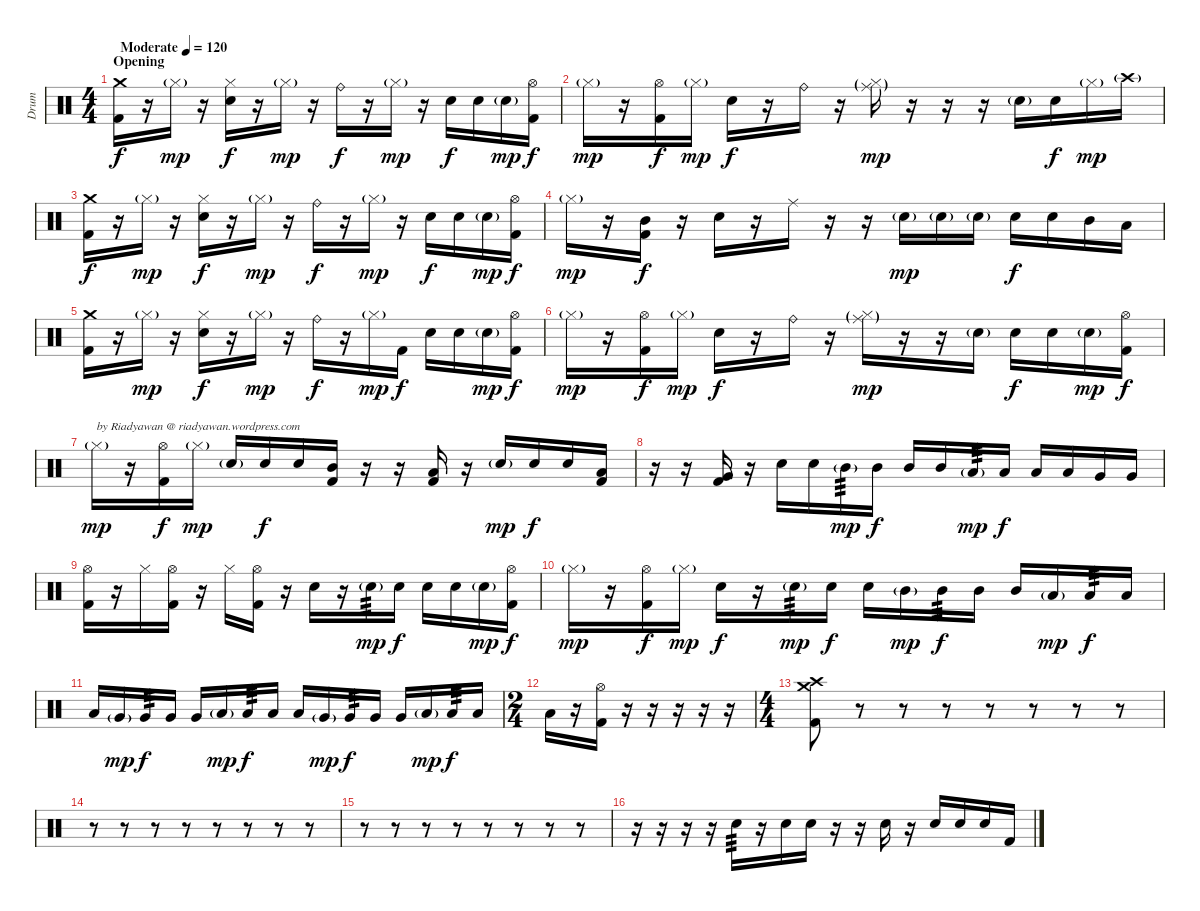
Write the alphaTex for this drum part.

\track ("Drum" "Drum") {instrument percussion}
\staff {score}
\articulation defaults
\ts (4 4)
\section ("" "Opening")
\tempo (120 "Moderate")
\clef neutral
\ks c
("Crash medium (hit)" "Kick (hit) 2").16{dy f} r.16 "Hi-Hat (closed)"{g}.16{dy mp} r.16 ("Hi-Hat (closed)" "Snare (hit) 2").16{dy f} r.16 "Hi-Hat (closed)"{g}.16{dy mp} r.16 "Ride (bell)".16{dy f} r.16 "Hi-Hat (closed)"{g}.16{dy mp} r.16 "Snare (hit) 2".16{dy f} "Snare (hit) 2".16 "Snare (hit) 2"{g}.16{dy mp} ("Hi-Hat (open)" "Kick (hit) 2").16{dy f} |
"Hi-Hat (closed)"{g}.16{dy mp} r.16 ("Hi-Hat (open)" "Kick (hit) 2").16{dy f} "Hi-Hat (closed)"{g}.16{dy mp} "Snare (hit) 2".16{dy f} r.16 "Ride (bell)".16 r.16 ("Hi-Hat (closed)"{g} "Ride (middle)"{g}).16{dy mp} r.16 r.16 r.16 "Snare (hit) 2"{g}.16 "Snare (hit) 2".16{dy f} "Hi-Hat (closed)"{g}.16{dy mp} "Crash high (hit)"{g}.16 |
("Crash medium (hit)" "Kick (hit) 2").16{dy f} r.16 "Hi-Hat (closed)"{g}.16{dy mp} r.16 ("Hi-Hat (closed)" "Snare (hit) 2").16{dy f} r.16 "Hi-Hat (closed)"{g}.16{dy mp} r.16 "Ride (bell)".16{dy f} r.16 "Hi-Hat (closed)"{g}.16{dy mp} r.16 "Snare (hit) 2".16{dy f} "Snare (hit) 2".16 "Snare (hit) 2"{g}.16{dy mp} ("Hi-Hat (open)" "Kick (hit) 2").16{dy f} |
"Hi-Hat (closed)"{g}.16{dy mp} r.16 ("Mid Tom (hit)" "Kick (hit) 2").16{dy f} r.16 "Snare (hit) 2".16 r.16 "Ride (middle)".16 r.16 r.16 "Snare (hit) 2"{g}.16{dy mp} "Snare (hit) 2"{g}.16 "Snare (hit) 2"{g}.16 "Snare (hit) 2".16{dy f} "Snare (hit) 2".16 "Mid Tom (hit)".16 "Low Tom (hit)".16 |
("Crash medium (hit)" "Kick (hit) 2").16 r.16 "Hi-Hat (closed)"{g}.16{dy mp} r.16 ("Hi-Hat (closed)" "Snare (hit) 2").16{dy f} r.16 "Hi-Hat (closed)"{g}.16{dy mp} r.16 "Ride (bell)".16{dy f} r.16 "Hi-Hat (closed)"{g}.16{dy mp} "Kick (hit) 2".16{dy f} "Snare (hit) 2".16 "Snare (hit) 2".16 "Snare (hit) 2"{g}.16{dy mp} ("Hi-Hat (open)" "Kick (hit) 2").16{dy f} |
"Hi-Hat (closed)"{g}.16{dy mp} r.16 ("Hi-Hat (open)" "Kick (hit) 2").16{dy f} "Hi-Hat (closed)"{g}.16{dy mp} "Snare (hit) 2".16{dy f} r.16 "Ride (bell)".16 r.16 ("Hi-Hat (closed)"{g} "Ride (middle)"{g}).16{dy mp} r.16 r.16 "Snare (hit) 2"{g}.16 "Snare (hit) 2".16{dy f} "Snare (hit) 2".16 "Snare (hit) 2"{g}.16{dy mp} ("Hi-Hat (open)" "Kick (hit) 2").16{dy f} |
"Hi-Hat (closed)"{g}.16{txt "by Riadyawan @ riadyawan.wordpress.com" dy mp} r.16 ("Hi-Hat (open)" "Kick (hit) 2").16{dy f} "Hi-Hat (closed)"{g}.16{dy mp} "Snare (hit) 2"{g}.16 "Snare (hit) 2".16{dy f} "Snare (hit) 2".16 ("Mid Tom (hit)" "Kick (hit) 2").16 r.16 r.16 ("Low Tom (hit)" "Kick (hit) 2").16 r.16 "Snare (hit) 2"{g}.16{dy mp} "Snare (hit) 2".16{dy f} "Snare (hit) 2".16 ("Low Tom (hit)" "Kick (hit) 2").16 |
r.16 r.16 ("Very Low Tom (hit)" "Kick (hit) 2").16 r.16 "Snare (hit) 2".16 "Snare (hit) 2".16 "Mid Tom (hit)"{g}.16{tp 3 dy mp} "Mid Tom (hit)".16{dy f} "Mid Tom (hit)".16 "Mid Tom (hit)".16 "Low Tom (hit)"{g}.16{tp 3 dy mp} "Low Tom (hit)".16{dy f} "Low Tom (hit)".16 "Low Tom (hit)".16 "Very Low Tom (hit)".16 "Very Low Tom (hit)".16 |
("Hi-Hat (open)" "Kick (hit) 2").16 r.16 "Hi-Hat (closed)".16 ("Hi-Hat (open)" "Kick (hit) 2").16 r.16 "Hi-Hat (closed)".16 ("Hi-Hat (open)" "Kick (hit) 2").16 r.16 "Snare (hit) 2".16 r.16 "Snare (hit) 2"{g}.16{tp 3 dy mp} "Snare (hit) 2".16{dy f} "Snare (hit) 2".16 "Snare (hit) 2".16 "Snare (hit) 2"{g}.16{dy mp} ("Hi-Hat (open)" "Kick (hit) 2").16{dy f} |
"Hi-Hat (closed)"{g}.16{dy mp} r.16 ("Hi-Hat (open)" "Kick (hit) 2").16{dy f} "Hi-Hat (closed)"{g}.16{dy mp} "Snare (hit) 2".16{dy f} r.16 "Snare (hit) 2"{g}.16{tp 3 dy mp} "Snare (hit) 2".16{dy f} "Snare (hit) 2".16 "Mid Tom (hit)"{g}.16{dy mp} "Mid Tom (hit)".16{tp 3 dy f} "Mid Tom (hit)".16 "Mid Tom (hit)".16 "Low Tom (hit)"{g}.16{dy mp} "Low Tom (hit)".16{tp 3 dy f} "Low Tom (hit)".16 |
"Low Tom (hit)".16 "Very Low Tom (hit)"{g}.16{dy mp} "Very Low Tom (hit)".16{tp 3 dy f} "Very Low Tom (hit)".16 "Very Low Tom (hit)".16 "Low Tom (hit)"{g}.16{dy mp} "Low Tom (hit)".16{tp 3 dy f} "Low Tom (hit)".16 "Low Tom (hit)".16 "Very Low Tom (hit)"{g}.16{dy mp} "Very Low Tom (hit)".16{tp 3 dy f} "Very Low Tom (hit)".16 "Very Low Tom (hit)".16 "Low Floor Tom (hit)"{g}.16{dy mp} "Low Floor Tom (hit)".16{tp 3 dy f} "Low Floor Tom (hit)".16 |
\ts (2 4)
"Low Floor Tom (hit)".16 r.16 ("Hi-Hat (open)" "Kick (hit) 2").16 r.16 r.16 r.16 r.16 r.16 |
\ts (4 4)
("Crash medium (hit)" "Crash high (hit)" "Kick (hit) 2").8 r.8 r.8 r.8 r.8 r.8 r.8 r.8 |
r.8 r.8 r.8 r.8 r.8 r.8 r.8 r.8 |
r.8 r.8 r.8 r.8 r.8 r.8 r.8 r.8 |
r.16 r.16 r.16 r.16 "Snare (hit) 2".16{tp 3} r.16 "Snare (hit) 2".16 "Snare (hit) 2".16 r.16 r.16 "Snare (hit) 2".16 r.16 "Snare (hit) 2".16 "Snare (hit) 2".16 "Snare (hit) 2".16 "Kick (hit) 2".16
